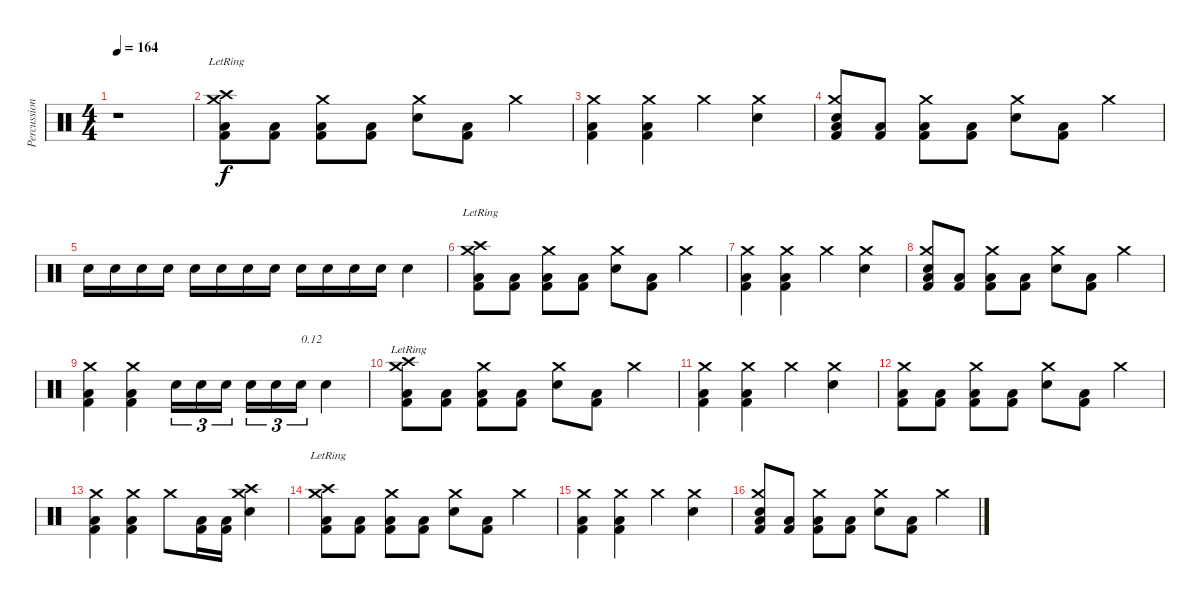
\track ("Percussions" "Percussion") {instrument percussion}
\staff {score}
\articulation defaults
\ts (4 4)
\tempo 164
\clef neutral
\ks c
r.1{dy f} |
("Low Floor Tom (hit)" "Kick (hit) 2" "Crash high (hit)"{lr} "Crash medium (hit)").8 ("Low Floor Tom (hit)" "Kick (hit) 2").8 ("Low Floor Tom (hit)" "Kick (hit) 2" "Crash medium (hit)").8 ("Low Floor Tom (hit)" "Kick (hit) 2").8 ("Electric Snare (hit)" "Crash medium (hit)").8 ("Low Floor Tom (hit)" "Kick (hit) 2").8 "Crash medium (hit)".4 |
("Low Floor Tom (hit)" "Kick (hit) 2" "Crash medium (hit)").4 ("Low Floor Tom (hit)" "Kick (hit) 2" "Crash medium (hit)").4 "Crash medium (hit)".4 ("Electric Snare (hit)" "Crash medium (hit)").4 |
("Low Floor Tom (hit)" "Kick (hit) 2" "Electric Snare (hit)" "Crash medium (hit)").8 ("Low Floor Tom (hit)" "Kick (hit) 2").8 ("Low Floor Tom (hit)" "Kick (hit) 2" "Crash medium (hit)").8 ("Low Floor Tom (hit)" "Kick (hit) 2").8 ("Electric Snare (hit)" "Crash medium (hit)").8 ("Low Floor Tom (hit)" "Kick (hit) 2").8 "Crash medium (hit)".4 |
"Electric Snare (hit)".16 "Electric Snare (hit)".16 "Electric Snare (hit)".16 "Electric Snare (hit)".16 "Electric Snare (hit)".16 "Electric Snare (hit)".16 "Electric Snare (hit)".16 "Electric Snare (hit)".16 "Electric Snare (hit)".16 "Electric Snare (hit)".16 "Electric Snare (hit)".16 "Electric Snare (hit)".16 "Snare (hit) 2".4 |
("Kick (hit) 2" "Low Floor Tom (hit)" "Crash high (hit)"{lr} "Crash medium (hit)").8 ("Kick (hit) 2" "Low Floor Tom (hit)").8 ("Kick (hit) 2" "Low Floor Tom (hit)" "Crash medium (hit)").8 ("Kick (hit) 2" "Low Floor Tom (hit)").8 ("Electric Snare (hit)" "Crash medium (hit)").8 ("Kick (hit) 2" "Low Floor Tom (hit)").8 "Crash medium (hit)".4 |
("Kick (hit) 2" "Low Floor Tom (hit)" "Crash medium (hit)").4 ("Kick (hit) 2" "Low Floor Tom (hit)" "Crash medium (hit)").4 "Crash medium (hit)".4 ("Electric Snare (hit)" "Crash medium (hit)").4 |
("Kick (hit) 2" "Low Floor Tom (hit)" "Electric Snare (hit)" "Crash medium (hit)").8 ("Kick (hit) 2" "Low Floor Tom (hit)").8 ("Kick (hit) 2" "Low Floor Tom (hit)" "Crash medium (hit)").8 ("Kick (hit) 2" "Low Floor Tom (hit)").8 ("Electric Snare (hit)" "Crash medium (hit)").8 ("Kick (hit) 2" "Low Floor Tom (hit)").8 "Crash medium (hit)".4 |
("Kick (hit) 2" "Low Floor Tom (hit)" "Crash medium (hit)").4 ("Kick (hit) 2" "Low Floor Tom (hit)" "Crash medium (hit)").4 "Electric Snare (hit)".16{tu (3 2)} "Electric Snare (hit)".16{tu (3 2)} "Electric Snare (hit)".16{tu (3 2)} "Electric Snare (hit)".16{tu (3 2)} "Electric Snare (hit)".16{tu (3 2)} "Electric Snare (hit)".16{tu (3 2) txt "0.12"} "Snare (hit) 2".4 |
("Low Floor Tom (hit)" "Kick (hit) 2" "Crash high (hit)"{lr} "Crash medium (hit)").8 ("Low Floor Tom (hit)" "Kick (hit) 2").8 ("Low Floor Tom (hit)" "Kick (hit) 2" "Crash medium (hit)").8 ("Low Floor Tom (hit)" "Kick (hit) 2").8 ("Electric Snare (hit)" "Crash medium (hit)").8 ("Low Floor Tom (hit)" "Kick (hit) 2").8 "Crash medium (hit)".4 |
("Low Floor Tom (hit)" "Kick (hit) 2" "Crash medium (hit)").4 ("Low Floor Tom (hit)" "Kick (hit) 2" "Crash medium (hit)").4 "Crash medium (hit)".4 ("Electric Snare (hit)" "Crash medium (hit)").4 |
("Low Floor Tom (hit)" "Kick (hit) 2" "Crash medium (hit)").8 ("Low Floor Tom (hit)" "Kick (hit) 2").8 ("Low Floor Tom (hit)" "Kick (hit) 2" "Crash medium (hit)").8 ("Low Floor Tom (hit)" "Kick (hit) 2").8 ("Electric Snare (hit)" "Crash medium (hit)").8 ("Low Floor Tom (hit)" "Kick (hit) 2").8 "Crash medium (hit)".4 |
("Low Floor Tom (hit)" "Kick (hit) 2" "Crash medium (hit)").4 ("Low Floor Tom (hit)" "Kick (hit) 2" "Crash medium (hit)").4 "Crash medium (hit)".8 ("Low Floor Tom (hit)" "Kick (hit) 2").16 ("Low Floor Tom (hit)" "Kick (hit) 2").16 ("Electric Snare (hit)" "Crash high (hit)" "Crash medium (hit)").4 |
("Low Floor Tom (hit)" "Kick (hit) 2" "Crash high (hit)"{lr} "Crash medium (hit)").8 ("Low Floor Tom (hit)" "Kick (hit) 2").8 ("Low Floor Tom (hit)" "Kick (hit) 2" "Crash medium (hit)").8 ("Low Floor Tom (hit)" "Kick (hit) 2").8 ("Electric Snare (hit)" "Crash medium (hit)").8 ("Low Floor Tom (hit)" "Kick (hit) 2").8 "Crash medium (hit)".4 |
("Low Floor Tom (hit)" "Kick (hit) 2" "Crash medium (hit)").4 ("Low Floor Tom (hit)" "Kick (hit) 2" "Crash medium (hit)").4 "Crash medium (hit)".4 ("Electric Snare (hit)" "Crash medium (hit)").4 |
("Low Floor Tom (hit)" "Kick (hit) 2" "Electric Snare (hit)" "Crash medium (hit)").8 ("Low Floor Tom (hit)" "Kick (hit) 2").8 ("Low Floor Tom (hit)" "Kick (hit) 2" "Crash medium (hit)").8 ("Low Floor Tom (hit)" "Kick (hit) 2").8 ("Electric Snare (hit)" "Crash medium (hit)").8 ("Low Floor Tom (hit)" "Kick (hit) 2").8 "Crash medium (hit)".4
